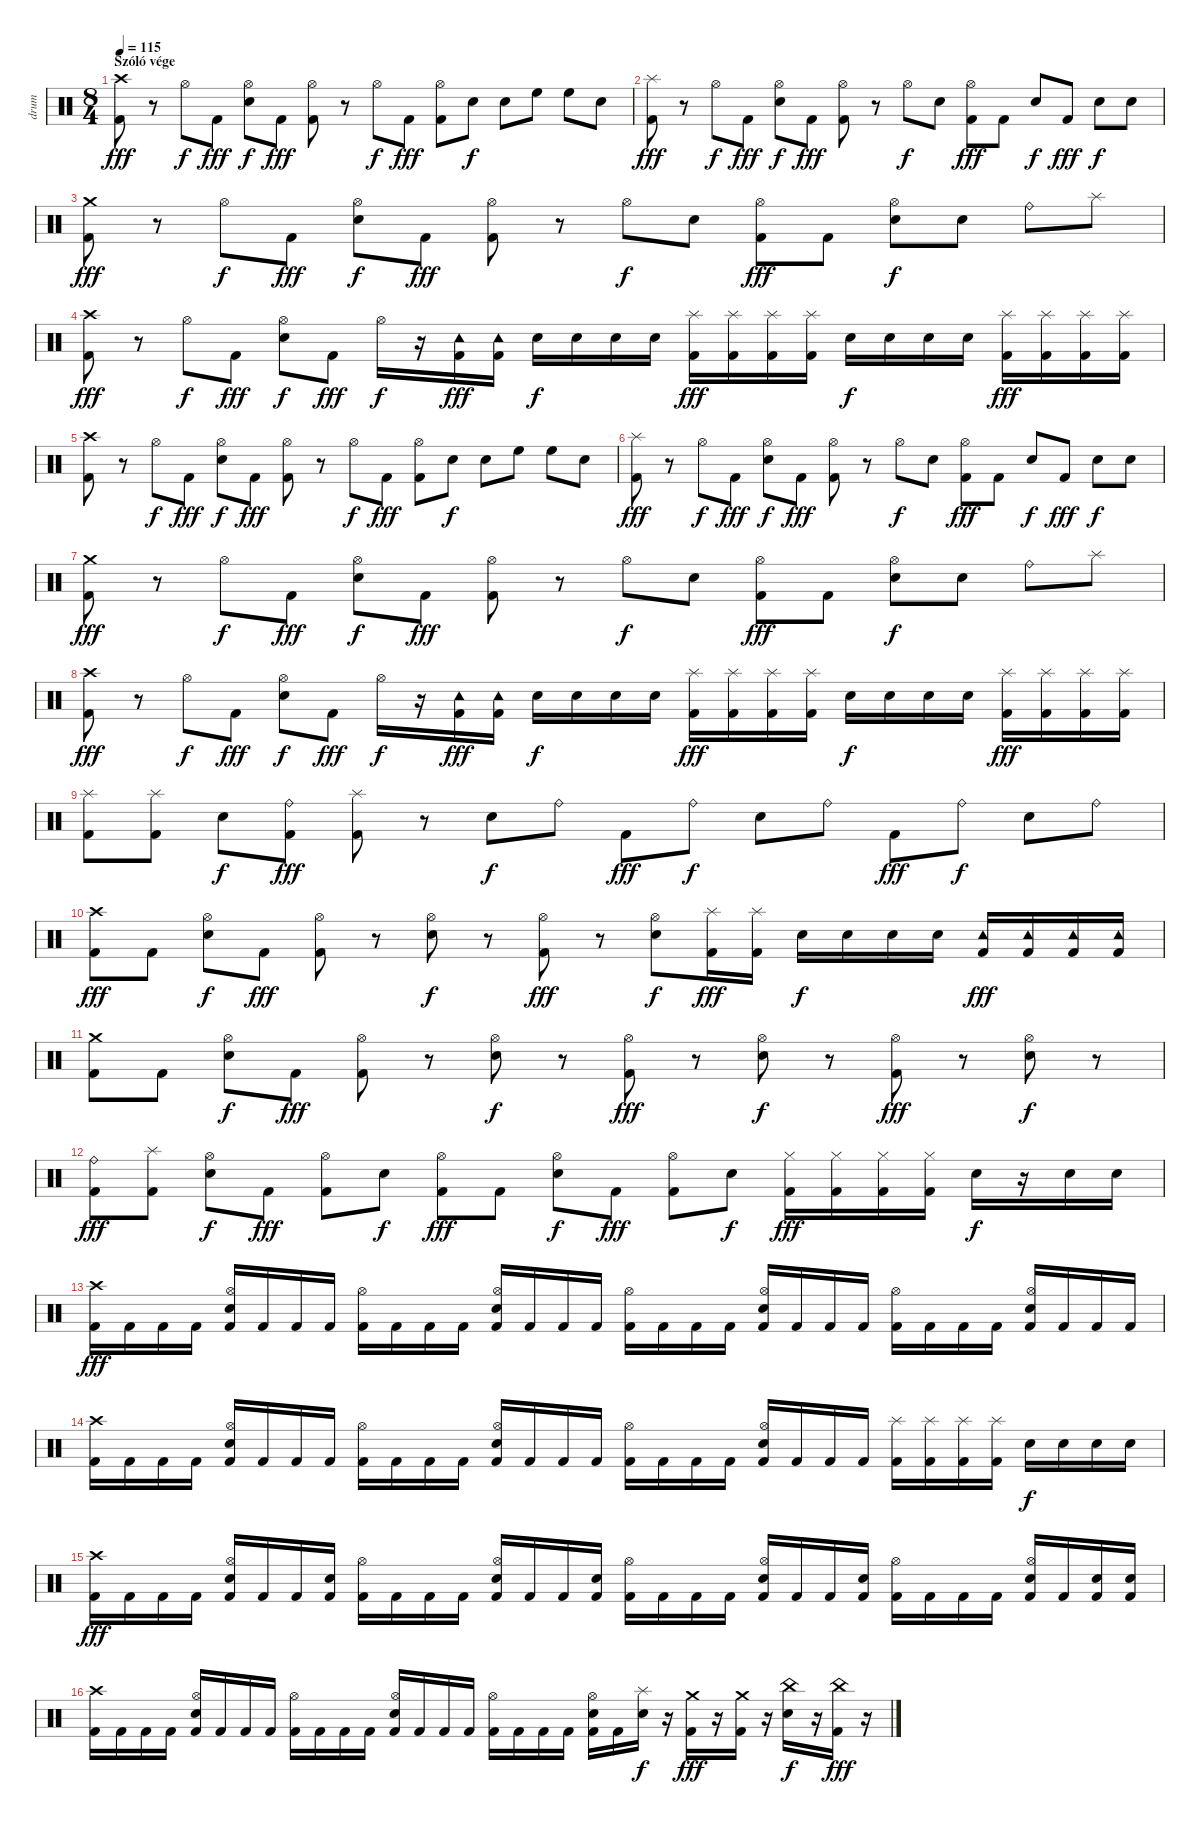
\track ("drum" "drum") {instrument percussion}
\staff {score}
\articulation defaults
\ts (8 4)
\section ("" "Szóló vége")
\tempo 115
\clef neutral
\ks c
("Crash high (hit)" "Kick (hit) 2").8{dy fff} r.8 "Hi-Hat (open)".8{dy f} "Kick (hit) 2".8{dy fff} ("Hi-Hat (open)" "Electric Snare (hit)").8{dy f} "Kick (hit) 2".8{dy fff} ("Hi-Hat (open)" "Kick (hit) 2").8 r.8 "Hi-Hat (open)".8{dy f} "Kick (hit) 2".8{dy fff} ("Hi-Hat (open)" "Kick (hit) 2").8 "Electric Snare (hit)".8{dy f} "Electric Snare (hit)".8 "High Floor Tom (hit)".8 "High Floor Tom (hit)".8 "Electric Snare (hit)".8 |
("Splash (hit)" "Kick (hit) 2").8{dy fff} r.8 "Hi-Hat (open)".8{dy f} "Kick (hit) 2".8{dy fff} ("Hi-Hat (open)" "Electric Snare (hit)").8{dy f} "Kick (hit) 2".8{dy fff} ("Hi-Hat (open)" "Kick (hit) 2").8 r.8 "Hi-Hat (open)".8{dy f} "Electric Snare (hit)".8 ("Hi-Hat (open)" "Kick (hit) 2").8{dy fff} "Kick (hit) 2".8 "Electric Snare (hit)".8{dy f} "Kick (hit) 2".8{dy fff} "Electric Snare (hit)".8{dy f} "Electric Snare (hit)".8 |
("Crash medium (hit)" "Kick (hit) 2").8{dy fff} r.8 "Hi-Hat (open)".8{dy f} "Kick (hit) 2".8{dy fff} ("Hi-Hat (open)" "Electric Snare (hit)").8{dy f} "Kick (hit) 2".8{dy fff} ("Hi-Hat (open)" "Kick (hit) 2").8 r.8 "Hi-Hat (open)".8{dy f} "Electric Snare (hit)".8 ("Hi-Hat (open)" "Kick (hit) 2").8{dy fff} "Kick (hit) 2".8 ("Hi-Hat (open)" "Electric Snare (hit)").8{dy f} "Electric Snare (hit)".8 "Ride (bell)".8 "Splash (hit)".8 |
("Crash high (hit)" "Kick (hit) 2").8{dy fff} r.8 "Hi-Hat (open)".8{dy f} "Kick (hit) 2".8{dy fff} ("Hi-Hat (open)" "Electric Snare (hit)").8{dy f} "Kick (hit) 2".8{dy fff} "Hi-Hat (open)".16{dy f} r.16 ("Tambourine (hit)" "Kick (hit) 2").16{dy fff} ("Tambourine (hit)" "Kick (hit) 2").16 "Electric Snare (hit)".16{dy f} "Electric Snare (hit)".16 "Electric Snare (hit)".16 "Electric Snare (hit)".16 ("Splash (hit)" "Kick (hit) 2").16{dy fff} ("Splash (hit)" "Kick (hit) 2").16 ("Splash (hit)" "Kick (hit) 2").16 ("Splash (hit)" "Kick (hit) 2").16 "Electric Snare (hit)".16{dy f} "Electric Snare (hit)".16 "Electric Snare (hit)".16 "Electric Snare (hit)".16 ("Splash (hit)" "Kick (hit) 2").16{dy fff} ("Splash (hit)" "Kick (hit) 2").16 ("Splash (hit)" "Kick (hit) 2").16 ("Splash (hit)" "Kick (hit) 2").16 |
("Crash high (hit)" "Kick (hit) 2").8 r.8 "Hi-Hat (open)".8{dy f} "Kick (hit) 2".8{dy fff} ("Hi-Hat (open)" "Electric Snare (hit)").8{dy f} "Kick (hit) 2".8{dy fff} ("Hi-Hat (open)" "Kick (hit) 2").8 r.8 "Hi-Hat (open)".8{dy f} "Kick (hit) 2".8{dy fff} ("Hi-Hat (open)" "Kick (hit) 2").8 "Electric Snare (hit)".8{dy f} "Electric Snare (hit)".8 "High Floor Tom (hit)".8 "High Floor Tom (hit)".8 "Electric Snare (hit)".8 |
("Splash (hit)" "Kick (hit) 2").8{dy fff} r.8 "Hi-Hat (open)".8{dy f} "Kick (hit) 2".8{dy fff} ("Hi-Hat (open)" "Electric Snare (hit)").8{dy f} "Kick (hit) 2".8{dy fff} ("Hi-Hat (open)" "Kick (hit) 2").8 r.8 "Hi-Hat (open)".8{dy f} "Electric Snare (hit)".8 ("Hi-Hat (open)" "Kick (hit) 2").8{dy fff} "Kick (hit) 2".8 "Electric Snare (hit)".8{dy f} "Kick (hit) 2".8{dy fff} "Electric Snare (hit)".8{dy f} "Electric Snare (hit)".8 |
("Crash medium (hit)" "Kick (hit) 2").8{dy fff} r.8 "Hi-Hat (open)".8{dy f} "Kick (hit) 2".8{dy fff} ("Hi-Hat (open)" "Electric Snare (hit)").8{dy f} "Kick (hit) 2".8{dy fff} ("Hi-Hat (open)" "Kick (hit) 2").8 r.8 "Hi-Hat (open)".8{dy f} "Electric Snare (hit)".8 ("Hi-Hat (open)" "Kick (hit) 2").8{dy fff} "Kick (hit) 2".8 ("Hi-Hat (open)" "Electric Snare (hit)").8{dy f} "Electric Snare (hit)".8 "Ride (bell)".8 "Splash (hit)".8 |
("Crash high (hit)" "Kick (hit) 2").8{dy fff} r.8 "Hi-Hat (open)".8{dy f} "Kick (hit) 2".8{dy fff} ("Hi-Hat (open)" "Electric Snare (hit)").8{dy f} "Kick (hit) 2".8{dy fff} "Hi-Hat (open)".16{dy f} r.16 ("Tambourine (hit)" "Kick (hit) 2").16{dy fff} ("Tambourine (hit)" "Kick (hit) 2").16 "Electric Snare (hit)".16{dy f} "Electric Snare (hit)".16 "Electric Snare (hit)".16 "Electric Snare (hit)".16 ("Splash (hit)" "Kick (hit) 2").16{dy fff} ("Splash (hit)" "Kick (hit) 2").16 ("Splash (hit)" "Kick (hit) 2").16 ("Splash (hit)" "Kick (hit) 2").16 "Electric Snare (hit)".16{dy f} "Electric Snare (hit)".16 "Electric Snare (hit)".16 "Electric Snare (hit)".16 ("Splash (hit)" "Kick (hit) 2").16{dy fff} ("Splash (hit)" "Kick (hit) 2").16 ("Splash (hit)" "Kick (hit) 2").16 ("Splash (hit)" "Kick (hit) 2").16 |
("Splash (hit)" "Kick (hit) 2").8 ("Splash (hit)" "Kick (hit) 2").8 "Electric Snare (hit)".8{dy f} ("Ride (bell)" "Kick (hit) 2").8{dy fff} ("Splash (hit)" "Kick (hit) 2").8 r.8 "Electric Snare (hit)".8{dy f} "Ride (bell)".8 "Kick (hit) 2".8{dy fff} "Ride (bell)".8{dy f} "Electric Snare (hit)".8 "Ride (bell)".8 "Kick (hit) 2".8{dy fff} "Ride (bell)".8{dy f} "Electric Snare (hit)".8 "Ride (bell)".8 |
("Crash high (hit)" "Kick (hit) 2").8{dy fff} "Kick (hit) 2".8 ("Hi-Hat (open)" "Electric Snare (hit)").8{dy f} "Kick (hit) 2".8{dy fff} ("Hi-Hat (open)" "Kick (hit) 2").8 r.8 ("Hi-Hat (open)" "Electric Snare (hit)").8{dy f} r.8 ("Hi-Hat (open)" "Kick (hit) 2").8{dy fff} r.8 ("Hi-Hat (open)" "Electric Snare (hit)").8{dy f} ("Splash (hit)" "Kick (hit) 2").16{dy fff} ("Splash (hit)" "Kick (hit) 2").16 "Electric Snare (hit)".16{dy f} "Electric Snare (hit)".16 "Electric Snare (hit)".16 "Electric Snare (hit)".16 ("Tambourine (hit)" "Kick (hit) 2").16{dy fff} ("Tambourine (hit)" "Kick (hit) 2").16 ("Tambourine (hit)" "Kick (hit) 2").16 ("Tambourine (hit)" "Kick (hit) 2").16 |
("Crash medium (hit)" "Kick (hit) 2").8 "Kick (hit) 2".8 ("Hi-Hat (open)" "Electric Snare (hit)").8{dy f} "Kick (hit) 2".8{dy fff} ("Hi-Hat (open)" "Kick (hit) 2").8 r.8 ("Hi-Hat (open)" "Electric Snare (hit)").8{dy f} r.8 ("Hi-Hat (open)" "Kick (hit) 2").8{dy fff} r.8 ("Hi-Hat (open)" "Electric Snare (hit)").8{dy f} r.8 ("Hi-Hat (open)" "Kick (hit) 2").8{dy fff} r.8 ("Hi-Hat (open)" "Electric Snare (hit)").8{dy f} r.8 |
("Ride (bell)" "Kick (hit) 2").8{dy fff} ("Splash (hit)" "Kick (hit) 2").8 ("Hi-Hat (open)" "Electric Snare (hit)").8{dy f} "Kick (hit) 2".8{dy fff} ("Hi-Hat (open)" "Kick (hit) 2").8 "Electric Snare (hit)".8{dy f} ("Hi-Hat (open)" "Kick (hit) 2").8{dy fff} "Kick (hit) 2".8 ("Hi-Hat (open)" "Electric Snare (hit)").8{dy f} "Kick (hit) 2".8{dy fff} ("Hi-Hat (open)" "Kick (hit) 2").8 "Electric Snare (hit)".8{dy f} ("Hi-Hat (closed)" "Kick (hit) 2").16{dy fff} ("Hi-Hat (closed)" "Kick (hit) 2").16 ("Hi-Hat (closed)" "Kick (hit) 2").16 ("Hi-Hat (closed)" "Kick (hit) 2").16 "Electric Snare (hit)".16{dy f} r.16 "Electric Snare (hit)".16 "Electric Snare (hit)".16 |
("Crash high (hit)" "Kick (hit) 2").16{dy fff} "Kick (hit) 2".16 "Kick (hit) 2".16 "Kick (hit) 2".16 ("Hi-Hat (open)" "Electric Snare (hit)" "Kick (hit) 2").16 "Kick (hit) 2".16 "Kick (hit) 2".16 "Kick (hit) 2".16 ("Hi-Hat (open)" "Kick (hit) 2").16 "Kick (hit) 2".16 "Kick (hit) 2".16 "Kick (hit) 2".16 ("Hi-Hat (open)" "Electric Snare (hit)" "Kick (hit) 2").16 "Kick (hit) 2".16 "Kick (hit) 2".16 "Kick (hit) 2".16 ("Hi-Hat (open)" "Kick (hit) 2").16 "Kick (hit) 2".16 "Kick (hit) 2".16 "Kick (hit) 2".16 ("Hi-Hat (open)" "Electric Snare (hit)" "Kick (hit) 2").16 "Kick (hit) 2".16 "Kick (hit) 2".16 "Kick (hit) 2".16 ("Hi-Hat (open)" "Kick (hit) 2").16 "Kick (hit) 2".16 "Kick (hit) 2".16 "Kick (hit) 2".16 ("Hi-Hat (open)" "Electric Snare (hit)" "Kick (hit) 2").16 "Kick (hit) 2".16 "Kick (hit) 2".16 "Kick (hit) 2".16 |
("Crash high (hit)" "Kick (hit) 2").16 "Kick (hit) 2".16 "Kick (hit) 2".16 "Kick (hit) 2".16 ("Hi-Hat (open)" "Electric Snare (hit)" "Kick (hit) 2").16 "Kick (hit) 2".16 "Kick (hit) 2".16 "Kick (hit) 2".16 ("Hi-Hat (open)" "Kick (hit) 2").16 "Kick (hit) 2".16 "Kick (hit) 2".16 "Kick (hit) 2".16 ("Hi-Hat (open)" "Electric Snare (hit)" "Kick (hit) 2").16 "Kick (hit) 2".16 "Kick (hit) 2".16 "Kick (hit) 2".16 ("Hi-Hat (open)" "Kick (hit) 2").16 "Kick (hit) 2".16 "Kick (hit) 2".16 "Kick (hit) 2".16 ("Hi-Hat (open)" "Electric Snare (hit)" "Kick (hit) 2").16 "Kick (hit) 2".16 "Kick (hit) 2".16 "Kick (hit) 2".16 ("Splash (hit)" "Kick (hit) 2").16 ("Splash (hit)" "Kick (hit) 2").16 ("Splash (hit)" "Kick (hit) 2").16 ("Splash (hit)" "Kick (hit) 2").16 "Electric Snare (hit)".16{dy f} "Electric Snare (hit)".16 "Electric Snare (hit)".16 "Electric Snare (hit)".16 |
("Crash high (hit)" "Kick (hit) 2").16{dy fff} "Kick (hit) 2".16 "Kick (hit) 2".16 "Kick (hit) 2".16 ("Hi-Hat (open)" "Electric Snare (hit)" "Kick (hit) 2").16 "Kick (hit) 2".16 "Kick (hit) 2".16 ("Electric Snare (hit)" "Kick (hit) 2").16 ("Hi-Hat (open)" "Kick (hit) 2").16 "Kick (hit) 2".16 "Kick (hit) 2".16 "Kick (hit) 2".16 ("Hi-Hat (open)" "Electric Snare (hit)" "Kick (hit) 2").16 "Kick (hit) 2".16 "Kick (hit) 2".16 ("Electric Snare (hit)" "Kick (hit) 2").16 ("Hi-Hat (open)" "Kick (hit) 2").16 "Kick (hit) 2".16 "Kick (hit) 2".16 "Kick (hit) 2".16 ("Hi-Hat (open)" "Electric Snare (hit)" "Kick (hit) 2").16 "Kick (hit) 2".16 "Kick (hit) 2".16 ("Electric Snare (hit)" "Kick (hit) 2").16 ("Hi-Hat (open)" "Kick (hit) 2").16 "Kick (hit) 2".16 "Kick (hit) 2".16 "Kick (hit) 2".16 ("Hi-Hat (open)" "Electric Snare (hit)" "Kick (hit) 2").16 "Kick (hit) 2".16 ("Electric Snare (hit)" "Kick (hit) 2").16 ("Electric Snare (hit)" "Kick (hit) 2").16 |
("Crash high (hit)" "Kick (hit) 2").16 "Kick (hit) 2".16 "Kick (hit) 2".16 "Kick (hit) 2".16 ("Hi-Hat (open)" "Electric Snare (hit)" "Kick (hit) 2").16 "Kick (hit) 2".16 "Kick (hit) 2".16 "Kick (hit) 2".16 ("Hi-Hat (open)" "Kick (hit) 2").16 "Kick (hit) 2".16 "Kick (hit) 2".16 "Kick (hit) 2".16 ("Hi-Hat (open)" "Electric Snare (hit)" "Kick (hit) 2").16 "Kick (hit) 2".16 "Kick (hit) 2".16 "Kick (hit) 2".16 ("Hi-Hat (open)" "Kick (hit) 2").16 "Kick (hit) 2".16 "Kick (hit) 2".16 "Kick (hit) 2".16 ("Hi-Hat (open)" "Electric Snare (hit)" "Kick (hit) 2").16 "Kick (hit) 2".16 ("Splash (hit)" "Electric Snare (hit)").16{dy f} r.16 ("Crash medium (hit)" "Kick (hit) 2").16{dy fff} r.16 ("Crash medium (hit)" "Kick (hit) 2").16 r.16 ("China (hit)" "Electric Snare (hit)").16{dy f} r.16 ("China (hit)" "Kick (hit) 2").16{dy fff} r.16
